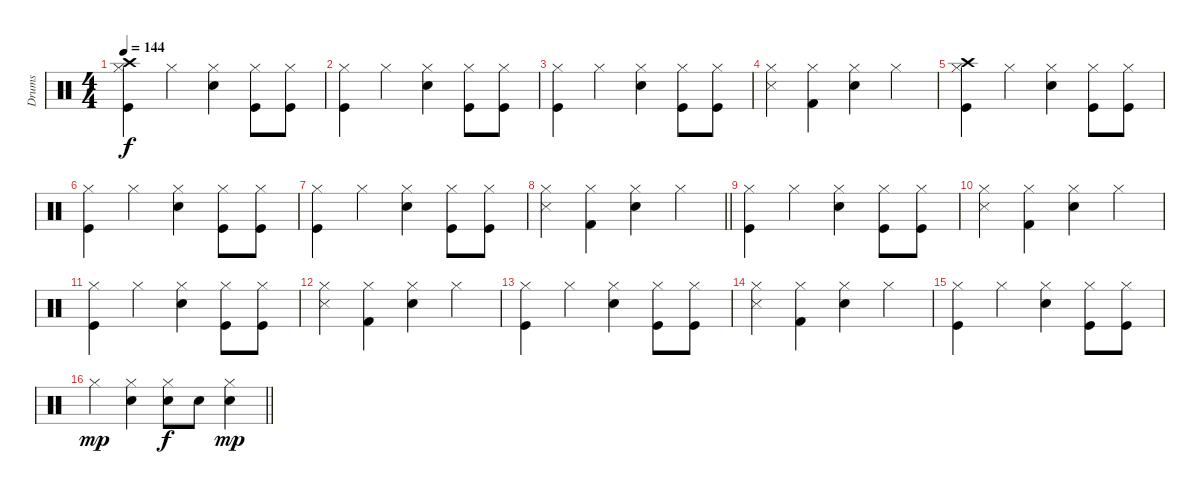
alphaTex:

\track ("Drums" "Drums") {instrument percussion}
\staff {score}
\articulation defaults
\ts (4 4)
\tempo 144
\clef neutral
\ks c
("Hi-Hat (closed)" "Crash high (hit)" "Kick (hit)").4{dy f} "Hi-Hat (closed)".4 ("Hi-Hat (closed)" "Electric Snare (hit)").4 ("Hi-Hat (closed)" "Kick (hit)").8 ("Hi-Hat (closed)" "Kick (hit)").8 |
("Hi-Hat (closed)" "Kick (hit)").4 "Hi-Hat (closed)".4 ("Hi-Hat (closed)" "Electric Snare (hit)").4 ("Hi-Hat (closed)" "Kick (hit)").8 ("Hi-Hat (closed)" "Kick (hit)").8 |
("Hi-Hat (closed)" "Kick (hit)").4 "Hi-Hat (closed)".4 ("Hi-Hat (closed)" "Electric Snare (hit)").4 ("Hi-Hat (closed)" "Kick (hit)").8 ("Hi-Hat (closed)" "Kick (hit)").8 |
("Hi-Hat (closed)" "Snare (side stick) 3").4 ("Hi-Hat (closed)" "Kick (hit) 2").4 ("Hi-Hat (closed)" "Electric Snare (hit)").4 "Hi-Hat (closed)".4 |
("Hi-Hat (closed)" "Crash high (hit)" "Kick (hit)").4 "Hi-Hat (closed)".4 ("Hi-Hat (closed)" "Electric Snare (hit)").4 ("Hi-Hat (closed)" "Kick (hit)").8 ("Hi-Hat (closed)" "Kick (hit)").8 |
("Hi-Hat (closed)" "Kick (hit)").4 "Hi-Hat (closed)".4 ("Hi-Hat (closed)" "Electric Snare (hit)").4 ("Hi-Hat (closed)" "Kick (hit)").8 ("Hi-Hat (closed)" "Kick (hit)").8 |
("Hi-Hat (closed)" "Kick (hit)").4 "Hi-Hat (closed)".4 ("Hi-Hat (closed)" "Electric Snare (hit)").4 ("Hi-Hat (closed)" "Kick (hit)").8 ("Hi-Hat (closed)" "Kick (hit)").8 |
\barLineRight lightlight
("Hi-Hat (closed)" "Snare (side stick) 3").4 ("Hi-Hat (closed)" "Kick (hit) 2").4 ("Hi-Hat (closed)" "Electric Snare (hit)").4 "Hi-Hat (closed)".4 |
("Hi-Hat (closed)" "Kick (hit)").4 "Hi-Hat (closed)".4 ("Hi-Hat (closed)" "Electric Snare (hit)").4 ("Hi-Hat (closed)" "Kick (hit)").8 ("Hi-Hat (closed)" "Kick (hit)").8 |
("Hi-Hat (closed)" "Snare (side stick) 3").4 ("Hi-Hat (closed)" "Kick (hit) 2").4 ("Hi-Hat (closed)" "Electric Snare (hit)").4 "Hi-Hat (closed)".4 |
("Hi-Hat (closed)" "Kick (hit)").4 "Hi-Hat (closed)".4 ("Hi-Hat (closed)" "Electric Snare (hit)").4 ("Hi-Hat (closed)" "Kick (hit)").8 ("Hi-Hat (closed)" "Kick (hit)").8 |
("Hi-Hat (closed)" "Snare (side stick) 3").4 ("Hi-Hat (closed)" "Kick (hit) 2").4 ("Hi-Hat (closed)" "Electric Snare (hit)").4 "Hi-Hat (closed)".4 |
("Hi-Hat (closed)" "Kick (hit)").4 "Hi-Hat (closed)".4 ("Hi-Hat (closed)" "Electric Snare (hit)").4 ("Hi-Hat (closed)" "Kick (hit)").8 ("Hi-Hat (closed)" "Kick (hit)").8 |
("Hi-Hat (closed)" "Snare (side stick) 3").4 ("Hi-Hat (closed)" "Kick (hit) 2").4 ("Hi-Hat (closed)" "Electric Snare (hit)").4 "Hi-Hat (closed)".4 |
("Hi-Hat (closed)" "Kick (hit)").4 "Hi-Hat (closed)".4 ("Hi-Hat (closed)" "Electric Snare (hit)").4 ("Hi-Hat (closed)" "Kick (hit)").8 ("Hi-Hat (closed)" "Kick (hit)").8 |
\barLineRight lightlight "Hi-Hat (closed)".4{dy mp}
("Hi-Hat (closed)" "Electric Snare (hit)").4 ("Hi-Hat (closed)" "Electric Snare (hit)").8{dy f} "Electric Snare (hit)".8 ("Hi-Hat (closed)" "Electric Snare (hit)").4{dy mp}
